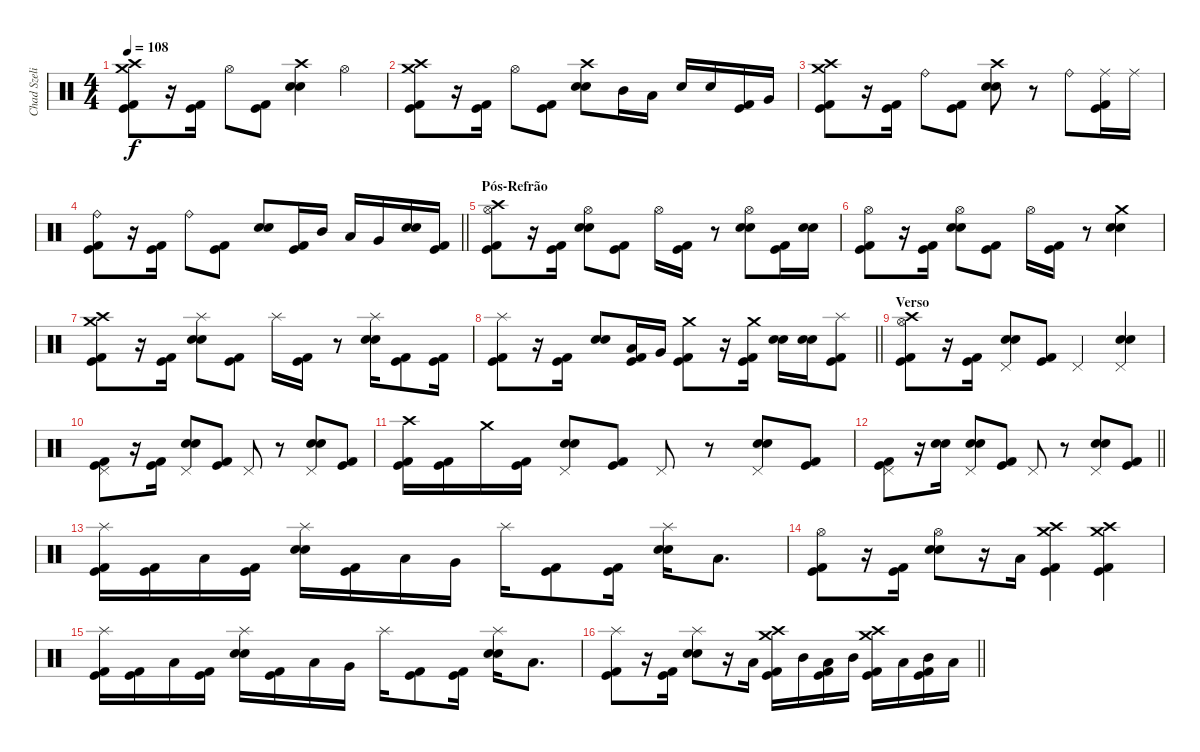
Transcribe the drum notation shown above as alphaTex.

\track ("Chad Szeliga" "Chad Szeli") {instrument percussion}
\staff {score}
\articulation defaults
\ts (4 4)
\tempo 108
\clef neutral
\ks c
("Crash high (hit)" "Kick (hit) 2" "Kick (hit)" "Crash medium (hit)").8{dy f} r.16 ("Kick (hit) 2" "Kick (hit)").16{beam Down} "Hi-Hat (open)".8 ("Kick (hit) 2" "Kick (hit)").8 ("Crash high (hit)" "Snare (hit) 2" "Snare (hit) 2").4 "Hi-Hat (open)".4 |
("Crash high (hit)" "Kick (hit) 2" "Kick (hit)" "Crash medium (hit)").8 r.16 ("Kick (hit) 2" "Kick (hit)").16{beam Down} "Hi-Hat (open)".8 ("Kick (hit) 2" "Kick (hit)").8 ("Crash high (hit)" "Snare (hit) 2" "Snare (hit) 2").8 "Mid Tom (hit)".16 "Low Tom (hit)".16 "Snare (hit) 2".16 "Snare (hit) 2".16 ("Kick (hit) 2" "Kick (hit)").16 "Very Low Tom (hit)".16 |
("Crash high (hit)" "Kick (hit) 2" "Kick (hit)" "Crash medium (hit)").8 r.16 ("Kick (hit) 2" "Kick (hit)").16{beam Down} "Ride (bell)".8 ("Kick (hit) 2" "Kick (hit)").8 ("Crash high (hit)" "Snare (hit) 2" "Snare (hit) 2").8 r.8 "Ride (bell)".8 ("Ride (middle)" "Kick (hit) 2" "Kick (hit)").16 "Ride (middle)".16 |
\barLineRight lightlight
("Ride (bell)" "Kick (hit) 2" "Kick (hit)").8 r.16 ("Kick (hit) 2" "Kick (hit)").16{beam Down} "Ride (bell)".8 ("Kick (hit) 2" "Kick (hit)").8 ("Snare (hit) 2" "Snare (hit) 2").8 ("Kick (hit) 2" "Kick (hit)").16 "Mid Tom (hit)".16 "Low Tom (hit)".16 "Very Low Tom (hit)".16 ("Snare (hit) 2" "Snare (hit) 2").16 ("Kick (hit) 2" "Kick (hit)").16 |
\section ("" "Pós-Refrão")
("Crash high (hit)" "Kick (hit) 2" "Kick (hit)" "Hi-Hat (open)").8 r.16 ("Kick (hit) 2" "Kick (hit)").16{beam Down} ("Snare (hit) 2" "Snare (hit) 2" "Hi-Hat (open)").8 ("Kick (hit) 2" "Kick (hit)").8 "Hi-Hat (open)".16 ("Kick (hit) 2" "Kick (hit)").16 r.8 ("Snare (hit) 2" "Snare (hit) 2" "Hi-Hat (open)").8 ("Kick (hit) 2" "Kick (hit)").16 ("Snare (hit) 2" "Snare (hit) 2").16 |
("Kick (hit) 2" "Kick (hit)" "Hi-Hat (open)").8 r.16 ("Kick (hit) 2" "Kick (hit)").16{beam Down} ("Snare (hit) 2" "Snare (hit) 2" "Hi-Hat (open)").8 ("Kick (hit) 2" "Kick (hit)").8 "Hi-Hat (open)".16 ("Kick (hit) 2" "Kick (hit)").16 r.8 ("Crash medium (hit)" "Snare (hit) 2" "Snare (hit) 2").4 |
("Crash high (hit)" "Kick (hit) 2" "Kick (hit)" "Crash medium (hit)").8 r.16 ("Kick (hit) 2" "Kick (hit)").16{beam Down} ("Splash (hit)" "Snare (hit) 2" "Snare (hit) 2").8 ("Kick (hit) 2" "Kick (hit)").8 "Splash (hit)".16 ("Kick (hit) 2" "Kick (hit)").16 r.8 ("Splash (hit)" "Snare (hit) 2" "Snare (hit) 2").16 ("Kick (hit) 2" "Kick (hit)").8 ("Kick (hit) 2" "Kick (hit)").16 |
\barLineRight lightlight
("Splash (hit)" "Kick (hit) 2" "Kick (hit)").8 r.16 ("Kick (hit) 2" "Kick (hit)").16{beam Down} ("Snare (hit) 2" "Snare (hit) 2").8 ("Kick (hit) 2" "Kick (hit)" "Low Tom (hit)").16 "Very Low Tom (hit)".16 ("Crash medium (hit)" "Kick (hit) 2" "Kick (hit)").8 r.16 ("Crash medium (hit)" "Kick (hit) 2" "Kick (hit)").16 ("Snare (hit) 2" "Snare (hit) 2").16 ("Snare (hit) 2" "Snare (hit) 2").16 ("Splash (hit)" "Kick (hit) 2" "Kick (hit)").8 |
\section ("" "Verso")
("Crash high (hit)" "Kick (hit) 2" "Kick (hit)" "Hi-Hat (open)").8 r.16 ("Kick (hit) 2" "Kick (hit)").16{beam Down} ("Snare (hit) 2" "Snare (hit) 2" "Pedal Hi-Hat (hit)").8 ("Kick (hit) 2" "Kick (hit)").8 "Pedal Hi-Hat (hit)".4 ("Snare (hit) 2" "Snare (hit) 2" "Pedal Hi-Hat (hit)").4 |
("Kick (hit) 2" "Kick (hit)" "Pedal Hi-Hat (hit)").8 r.16 ("Kick (hit) 2" "Kick (hit)").16{beam Down} ("Snare (hit) 2" "Snare (hit) 2" "Pedal Hi-Hat (hit)").8 ("Kick (hit) 2" "Kick (hit)").8 "Pedal Hi-Hat (hit)".8 r.8 ("Snare (hit) 2" "Snare (hit) 2" "Pedal Hi-Hat (hit)").8 ("Kick (hit) 2" "Kick (hit)").8 |
("Crash high (hit)" "Kick (hit) 2" "Kick (hit)").16 ("Kick (hit) 2" "Kick (hit)").16 "Crash medium (hit)".16 ("Kick (hit) 2" "Kick (hit)").16 ("Snare (hit) 2" "Snare (hit) 2" "Pedal Hi-Hat (hit)").8 ("Kick (hit) 2" "Kick (hit)").8 "Pedal Hi-Hat (hit)".8 r.8 ("Snare (hit) 2" "Snare (hit) 2" "Pedal Hi-Hat (hit)").8 ("Kick (hit) 2" "Kick (hit)").8 |
\barLineRight lightlight
("Kick (hit) 2" "Kick (hit)" "Pedal Hi-Hat (hit)").8 r.16 ("Snare (hit) 2" "Snare (hit) 2").16{beam Down} ("Snare (hit) 2" "Snare (hit) 2" "Pedal Hi-Hat (hit)").8 ("Kick (hit) 2" "Kick (hit)").8 "Pedal Hi-Hat (hit)".8 r.8 ("Snare (hit) 2" "Snare (hit) 2" "Pedal Hi-Hat (hit)").8 ("Kick (hit) 2" "Kick (hit)").8 |
("Splash (hit)" "Kick (hit) 2" "Kick (hit)").16 ("Kick (hit) 2" "Kick (hit)").16 "Low Tom (hit)".16 ("Kick (hit) 2" "Kick (hit)").16 ("Splash (hit)" "Snare (hit) 2" "Snare (hit) 2").16 ("Kick (hit) 2" "Kick (hit)").16 "Low Tom (hit)".16 "Very Low Tom (hit)".16 "Splash (hit)".16 ("Kick (hit) 2" "Kick (hit)").8 ("Kick (hit) 2" "Kick (hit)").16 ("Splash (hit)" "Snare (hit) 2" "Snare (hit) 2").16 "Low Tom (hit)".8{d} |
("Kick (hit) 2" "Kick (hit)" "Hi-Hat (open)").8 r.16 ("Kick (hit) 2" "Kick (hit)").16{beam Down} ("Snare (hit) 2" "Snare (hit) 2" "Hi-Hat (open)").8 r.16 "Low Tom (hit)".16{beam Down} ("Crash high (hit)" "Kick (hit) 2" "Kick (hit)" "Crash medium (hit)").4 ("Crash high (hit)" "Kick (hit) 2" "Kick (hit)" "Crash medium (hit)").4 |
("Splash (hit)" "Kick (hit) 2" "Kick (hit)").16 ("Kick (hit) 2" "Kick (hit)").16 "Low Tom (hit)".16 ("Kick (hit) 2" "Kick (hit)").16 ("Splash (hit)" "Snare (hit) 2" "Snare (hit) 2").16 ("Kick (hit) 2" "Kick (hit)").16 "Low Tom (hit)".16 "Very Low Tom (hit)".16 "Splash (hit)".16 ("Kick (hit) 2" "Kick (hit)").8 ("Kick (hit) 2" "Kick (hit)").16 ("Splash (hit)" "Snare (hit) 2" "Snare (hit) 2").16 "Low Tom (hit)".8{d} |
\barLineRight lightlight
("Splash (hit)" "Kick (hit) 2" "Kick (hit)").8 r.16 ("Kick (hit) 2" "Kick (hit)").16{beam Down} ("Splash (hit)" "Snare (hit) 2" "Snare (hit) 2").8 r.16 "Low Tom (hit)".16{beam Down} ("Crash high (hit)" "Kick (hit) 2" "Kick (hit)" "Crash medium (hit)").16 "Mid Tom (hit)".16 ("Kick (hit) 2" "Kick (hit)" "Low Tom (hit)").16 "Mid Tom (hit)".16 ("Crash high (hit)" "Kick (hit) 2" "Kick (hit)" "Crash medium (hit)").16 "Low Tom (hit)".16 ("Kick (hit) 2" "Kick (hit)" "Mid Tom (hit)").16 "Low Tom (hit)".16
